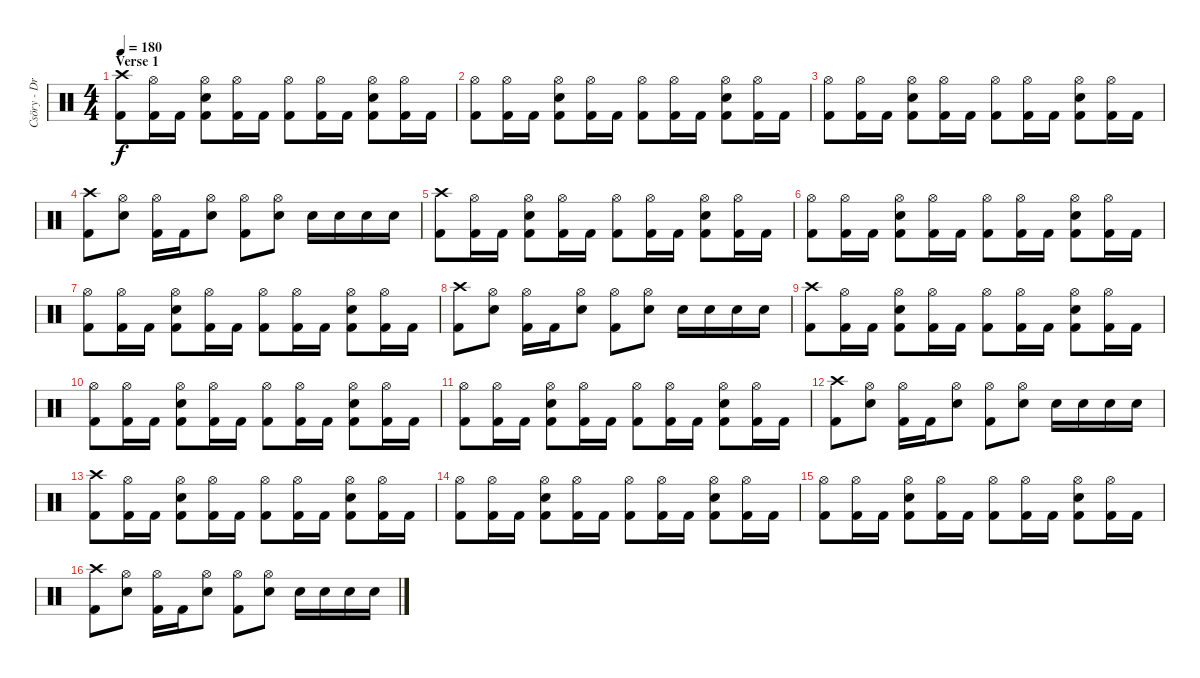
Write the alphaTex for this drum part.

\track ("Csöry - DrumZ" "Csöry - Dr") {instrument percussion}
\staff {score}
\articulation defaults
\ts (4 4)
\section ("" "Verse 1")
\tempo 180
\clef neutral
\ks c
("Crash high (hit)" "Kick (hit) 2").8{dy f} ("Hi-Hat (open)" "Kick (hit) 2").16 "Kick (hit) 2".16 ("Hi-Hat (open)" "Snare (hit) 2" "Kick (hit) 2").8 ("Hi-Hat (open)" "Kick (hit) 2").16 "Kick (hit) 2".16 ("Hi-Hat (open)" "Kick (hit) 2").8 ("Hi-Hat (open)" "Kick (hit) 2").16 "Kick (hit) 2".16 ("Hi-Hat (open)" "Snare (hit) 2" "Kick (hit) 2").8 ("Hi-Hat (open)" "Kick (hit) 2").16 "Kick (hit) 2".16 |
("Hi-Hat (open)" "Kick (hit) 2").8 ("Hi-Hat (open)" "Kick (hit) 2").16 "Kick (hit) 2".16 ("Hi-Hat (open)" "Snare (hit) 2" "Kick (hit) 2").8 ("Hi-Hat (open)" "Kick (hit) 2").16 "Kick (hit) 2".16 ("Hi-Hat (open)" "Kick (hit) 2").8 ("Hi-Hat (open)" "Kick (hit) 2").16 "Kick (hit) 2".16 ("Hi-Hat (open)" "Snare (hit) 2" "Kick (hit) 2").8 ("Hi-Hat (open)" "Kick (hit) 2").16 "Kick (hit) 2".16 |
("Hi-Hat (open)" "Kick (hit) 2").8 ("Hi-Hat (open)" "Kick (hit) 2").16 "Kick (hit) 2".16 ("Hi-Hat (open)" "Snare (hit) 2" "Kick (hit) 2").8 ("Hi-Hat (open)" "Kick (hit) 2").16 "Kick (hit) 2".16 ("Hi-Hat (open)" "Kick (hit) 2").8 ("Hi-Hat (open)" "Kick (hit) 2").16 "Kick (hit) 2".16 ("Hi-Hat (open)" "Snare (hit) 2" "Kick (hit) 2").8 ("Hi-Hat (open)" "Kick (hit) 2").16 "Kick (hit) 2".16 |
("Crash high (hit)" "Kick (hit) 2").8 ("Hi-Hat (open)" "Snare (hit) 2").8 ("Hi-Hat (open)" "Kick (hit) 2").16 "Kick (hit) 2".16 ("Hi-Hat (open)" "Snare (hit) 2").8 ("Hi-Hat (open)" "Kick (hit) 2").8 ("Hi-Hat (open)" "Snare (hit) 2").8 "Snare (hit) 2".16 "Snare (hit) 2".16 "Snare (hit) 2".16 "Snare (hit) 2".16 |
("Crash high (hit)" "Kick (hit) 2").8 ("Hi-Hat (open)" "Kick (hit) 2").16 "Kick (hit) 2".16 ("Hi-Hat (open)" "Snare (hit) 2" "Kick (hit) 2").8 ("Hi-Hat (open)" "Kick (hit) 2").16 "Kick (hit) 2".16 ("Hi-Hat (open)" "Kick (hit) 2").8 ("Hi-Hat (open)" "Kick (hit) 2").16 "Kick (hit) 2".16 ("Hi-Hat (open)" "Snare (hit) 2" "Kick (hit) 2").8 ("Hi-Hat (open)" "Kick (hit) 2").16 "Kick (hit) 2".16 |
("Hi-Hat (open)" "Kick (hit) 2").8 ("Hi-Hat (open)" "Kick (hit) 2").16 "Kick (hit) 2".16 ("Hi-Hat (open)" "Snare (hit) 2" "Kick (hit) 2").8 ("Hi-Hat (open)" "Kick (hit) 2").16 "Kick (hit) 2".16 ("Hi-Hat (open)" "Kick (hit) 2").8 ("Hi-Hat (open)" "Kick (hit) 2").16 "Kick (hit) 2".16 ("Hi-Hat (open)" "Snare (hit) 2" "Kick (hit) 2").8 ("Hi-Hat (open)" "Kick (hit) 2").16 "Kick (hit) 2".16 |
("Hi-Hat (open)" "Kick (hit) 2").8 ("Hi-Hat (open)" "Kick (hit) 2").16 "Kick (hit) 2".16 ("Hi-Hat (open)" "Snare (hit) 2" "Kick (hit) 2").8 ("Hi-Hat (open)" "Kick (hit) 2").16 "Kick (hit) 2".16 ("Hi-Hat (open)" "Kick (hit) 2").8 ("Hi-Hat (open)" "Kick (hit) 2").16 "Kick (hit) 2".16 ("Hi-Hat (open)" "Snare (hit) 2" "Kick (hit) 2").8 ("Hi-Hat (open)" "Kick (hit) 2").16 "Kick (hit) 2".16 |
("Crash high (hit)" "Kick (hit) 2").8 ("Hi-Hat (open)" "Snare (hit) 2").8 ("Hi-Hat (open)" "Kick (hit) 2").16 "Kick (hit) 2".16 ("Hi-Hat (open)" "Snare (hit) 2").8 ("Hi-Hat (open)" "Kick (hit) 2").8 ("Hi-Hat (open)" "Snare (hit) 2").8 "Snare (hit) 2".16 "Snare (hit) 2".16 "Snare (hit) 2".16 "Snare (hit) 2".16 |
("Crash high (hit)" "Kick (hit) 2").8 ("Hi-Hat (open)" "Kick (hit) 2").16 "Kick (hit) 2".16 ("Hi-Hat (open)" "Snare (hit) 2" "Kick (hit) 2").8 ("Hi-Hat (open)" "Kick (hit) 2").16 "Kick (hit) 2".16 ("Hi-Hat (open)" "Kick (hit) 2").8 ("Hi-Hat (open)" "Kick (hit) 2").16 "Kick (hit) 2".16 ("Hi-Hat (open)" "Snare (hit) 2" "Kick (hit) 2").8 ("Hi-Hat (open)" "Kick (hit) 2").16 "Kick (hit) 2".16 |
("Hi-Hat (open)" "Kick (hit) 2").8 ("Hi-Hat (open)" "Kick (hit) 2").16 "Kick (hit) 2".16 ("Hi-Hat (open)" "Snare (hit) 2" "Kick (hit) 2").8 ("Hi-Hat (open)" "Kick (hit) 2").16 "Kick (hit) 2".16 ("Hi-Hat (open)" "Kick (hit) 2").8 ("Hi-Hat (open)" "Kick (hit) 2").16 "Kick (hit) 2".16 ("Hi-Hat (open)" "Snare (hit) 2" "Kick (hit) 2").8 ("Hi-Hat (open)" "Kick (hit) 2").16 "Kick (hit) 2".16 |
("Hi-Hat (open)" "Kick (hit) 2").8 ("Hi-Hat (open)" "Kick (hit) 2").16 "Kick (hit) 2".16 ("Hi-Hat (open)" "Snare (hit) 2" "Kick (hit) 2").8 ("Hi-Hat (open)" "Kick (hit) 2").16 "Kick (hit) 2".16 ("Hi-Hat (open)" "Kick (hit) 2").8 ("Hi-Hat (open)" "Kick (hit) 2").16 "Kick (hit) 2".16 ("Hi-Hat (open)" "Snare (hit) 2" "Kick (hit) 2").8 ("Hi-Hat (open)" "Kick (hit) 2").16 "Kick (hit) 2".16 |
("Crash high (hit)" "Kick (hit) 2").8 ("Hi-Hat (open)" "Snare (hit) 2").8 ("Hi-Hat (open)" "Kick (hit) 2").16 "Kick (hit) 2".16 ("Hi-Hat (open)" "Snare (hit) 2").8 ("Hi-Hat (open)" "Kick (hit) 2").8 ("Hi-Hat (open)" "Snare (hit) 2").8 "Snare (hit) 2".16 "Snare (hit) 2".16 "Snare (hit) 2".16 "Snare (hit) 2".16 |
("Crash high (hit)" "Kick (hit) 2").8 ("Hi-Hat (open)" "Kick (hit) 2").16 "Kick (hit) 2".16 ("Hi-Hat (open)" "Snare (hit) 2" "Kick (hit) 2").8 ("Hi-Hat (open)" "Kick (hit) 2").16 "Kick (hit) 2".16 ("Hi-Hat (open)" "Kick (hit) 2").8 ("Hi-Hat (open)" "Kick (hit) 2").16 "Kick (hit) 2".16 ("Hi-Hat (open)" "Snare (hit) 2" "Kick (hit) 2").8 ("Hi-Hat (open)" "Kick (hit) 2").16 "Kick (hit) 2".16 |
("Hi-Hat (open)" "Kick (hit) 2").8 ("Hi-Hat (open)" "Kick (hit) 2").16 "Kick (hit) 2".16 ("Hi-Hat (open)" "Snare (hit) 2" "Kick (hit) 2").8 ("Hi-Hat (open)" "Kick (hit) 2").16 "Kick (hit) 2".16 ("Hi-Hat (open)" "Kick (hit) 2").8 ("Hi-Hat (open)" "Kick (hit) 2").16 "Kick (hit) 2".16 ("Hi-Hat (open)" "Snare (hit) 2" "Kick (hit) 2").8 ("Hi-Hat (open)" "Kick (hit) 2").16 "Kick (hit) 2".16 |
("Hi-Hat (open)" "Kick (hit) 2").8 ("Hi-Hat (open)" "Kick (hit) 2").16 "Kick (hit) 2".16 ("Hi-Hat (open)" "Snare (hit) 2" "Kick (hit) 2").8 ("Hi-Hat (open)" "Kick (hit) 2").16 "Kick (hit) 2".16 ("Hi-Hat (open)" "Kick (hit) 2").8 ("Hi-Hat (open)" "Kick (hit) 2").16 "Kick (hit) 2".16 ("Hi-Hat (open)" "Snare (hit) 2" "Kick (hit) 2").8 ("Hi-Hat (open)" "Kick (hit) 2").16 "Kick (hit) 2".16 |
("Crash high (hit)" "Kick (hit) 2").8 ("Hi-Hat (open)" "Snare (hit) 2").8 ("Hi-Hat (open)" "Kick (hit) 2").16 "Kick (hit) 2".16 ("Hi-Hat (open)" "Snare (hit) 2").8 ("Hi-Hat (open)" "Kick (hit) 2").8 ("Hi-Hat (open)" "Snare (hit) 2").8 "Snare (hit) 2".16 "Snare (hit) 2".16 "Snare (hit) 2".16 "Snare (hit) 2".16
